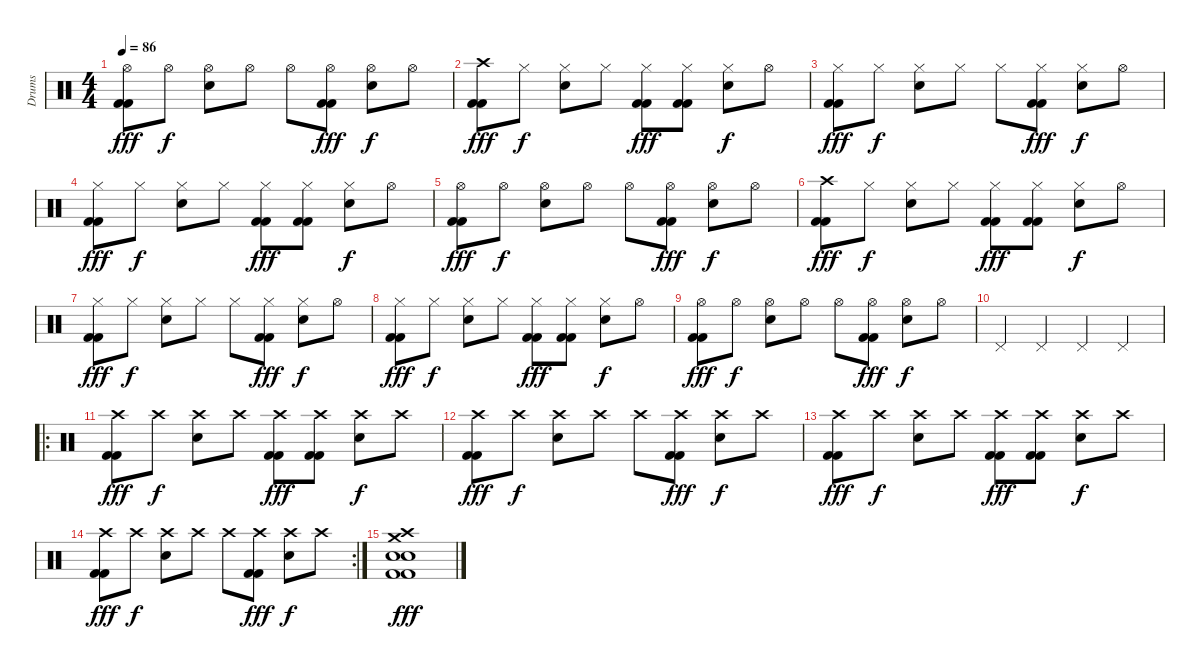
\track ("Drums" "Drums") {instrument percussion}
\staff {score}
\articulation defaults
\ts (4 4)
\tempo 86
\clef neutral
\ks c
("Hi-Hat (open)" "Kick (hit) 2" "Kick (hit) 2").8{dy fff} "Hi-Hat (open)".8{dy f} ("Hi-Hat (open)" "Electric Snare (hit)").8 "Hi-Hat (open)".8 "Hi-Hat (open)".8 ("Hi-Hat (open)" "Kick (hit) 2" "Kick (hit) 2").8{dy fff} ("Hi-Hat (open)" "Electric Snare (hit)").8{dy f} "Hi-Hat (open)".8 |
("Crash high (hit)" "Kick (hit) 2" "Kick (hit) 2").8{dy fff} "Hi-Hat (closed)".8{dy f} ("Hi-Hat (closed)" "Electric Snare (hit)").8 "Hi-Hat (closed)".8 ("Hi-Hat (closed)" "Kick (hit) 2" "Kick (hit) 2").8{dy fff} ("Hi-Hat (closed)" "Kick (hit) 2" "Kick (hit) 2").8 ("Hi-Hat (closed)" "Electric Snare (hit)").8{dy f} "Hi-Hat (open)".8 |
("Hi-Hat (closed)" "Kick (hit) 2" "Kick (hit) 2").8{dy fff} "Hi-Hat (closed)".8{dy f} ("Hi-Hat (closed)" "Electric Snare (hit)").8 "Hi-Hat (closed)".8 "Hi-Hat (closed)".8 ("Hi-Hat (closed)" "Kick (hit) 2" "Kick (hit) 2").8{dy fff} ("Hi-Hat (closed)" "Electric Snare (hit)").8{dy f} "Hi-Hat (open)".8 |
("Hi-Hat (closed)" "Kick (hit) 2" "Kick (hit) 2").8{dy fff} "Hi-Hat (closed)".8{dy f} ("Hi-Hat (closed)" "Electric Snare (hit)").8 "Hi-Hat (closed)".8 ("Hi-Hat (closed)" "Kick (hit) 2" "Kick (hit) 2").8{dy fff} ("Hi-Hat (closed)" "Kick (hit) 2" "Kick (hit) 2").8 ("Hi-Hat (closed)" "Electric Snare (hit)").8{dy f} "Hi-Hat (open)".8 |
("Hi-Hat (open)" "Kick (hit) 2" "Kick (hit) 2").8{dy fff} "Hi-Hat (open)".8{dy f} ("Hi-Hat (open)" "Electric Snare (hit)").8 "Hi-Hat (open)".8 "Hi-Hat (open)".8 ("Hi-Hat (open)" "Kick (hit) 2" "Kick (hit) 2").8{dy fff} ("Hi-Hat (open)" "Electric Snare (hit)").8{dy f} "Hi-Hat (open)".8 |
("Crash high (hit)" "Kick (hit) 2" "Kick (hit) 2").8{dy fff} "Hi-Hat (closed)".8{dy f} ("Hi-Hat (closed)" "Electric Snare (hit)").8 "Hi-Hat (closed)".8 ("Hi-Hat (closed)" "Kick (hit) 2" "Kick (hit) 2").8{dy fff} ("Hi-Hat (closed)" "Kick (hit) 2" "Kick (hit) 2").8 ("Hi-Hat (closed)" "Electric Snare (hit)").8{dy f} "Hi-Hat (open)".8 |
("Hi-Hat (closed)" "Kick (hit) 2" "Kick (hit) 2").8{dy fff} "Hi-Hat (closed)".8{dy f} ("Hi-Hat (closed)" "Electric Snare (hit)").8 "Hi-Hat (closed)".8 "Hi-Hat (closed)".8 ("Hi-Hat (closed)" "Kick (hit) 2" "Kick (hit) 2").8{dy fff} ("Hi-Hat (closed)" "Electric Snare (hit)").8{dy f} "Hi-Hat (open)".8 |
("Hi-Hat (closed)" "Kick (hit) 2" "Kick (hit) 2").8{dy fff} "Hi-Hat (closed)".8{dy f} ("Hi-Hat (closed)" "Electric Snare (hit)").8 "Hi-Hat (closed)".8 ("Hi-Hat (closed)" "Kick (hit) 2" "Kick (hit) 2").8{dy fff} ("Hi-Hat (closed)" "Kick (hit) 2" "Kick (hit) 2").8 ("Hi-Hat (closed)" "Electric Snare (hit)").8{dy f} "Hi-Hat (open)".8 |
("Hi-Hat (open)" "Kick (hit) 2" "Kick (hit) 2").8{dy fff} "Hi-Hat (open)".8{dy f} ("Hi-Hat (open)" "Electric Snare (hit)").8 "Hi-Hat (open)".8 "Hi-Hat (open)".8 ("Hi-Hat (open)" "Kick (hit) 2" "Kick (hit) 2").8{dy fff} ("Hi-Hat (open)" "Electric Snare (hit)").8{dy f} "Hi-Hat (open)".8 |
"Pedal Hi-Hat (hit)".4 "Pedal Hi-Hat (hit)".4 "Pedal Hi-Hat (hit)".4 "Pedal Hi-Hat (hit)".4 |
\ro
("Crash high (hit)" "Kick (hit) 2" "Kick (hit) 2").8{dy fff} "Crash high (hit)".8{dy f} ("Crash high (hit)" "Electric Snare (hit)").8 "Crash high (hit)".8 ("Crash high (hit)" "Kick (hit) 2" "Kick (hit) 2").8{dy fff} ("Crash high (hit)" "Kick (hit) 2" "Kick (hit) 2").8 ("Crash high (hit)" "Electric Snare (hit)").8{dy f} "Crash high (hit)".8 |
("Crash high (hit)" "Kick (hit) 2" "Kick (hit) 2").8{dy fff} "Crash high (hit)".8{dy f} ("Crash high (hit)" "Electric Snare (hit)").8 "Crash high (hit)".8 "Crash high (hit)".8 ("Crash high (hit)" "Kick (hit) 2" "Kick (hit) 2").8{dy fff} ("Crash high (hit)" "Electric Snare (hit)").8{dy f} "Crash high (hit)".8 |
("Crash high (hit)" "Kick (hit) 2" "Kick (hit) 2").8{dy fff} "Crash high (hit)".8{dy f} ("Crash high (hit)" "Electric Snare (hit)").8 "Crash high (hit)".8 ("Crash high (hit)" "Kick (hit) 2" "Kick (hit) 2").8{dy fff} ("Crash high (hit)" "Kick (hit) 2" "Kick (hit) 2").8 ("Crash high (hit)" "Electric Snare (hit)").8{dy f} "Crash high (hit)".8 |
\rc 2
("Crash high (hit)" "Kick (hit) 2" "Kick (hit) 2").8{dy fff} "Crash high (hit)".8{dy f} ("Crash high (hit)" "Electric Snare (hit)").8 "Crash high (hit)".8 "Crash high (hit)".8 ("Crash high (hit)" "Kick (hit) 2" "Kick (hit) 2").8{dy fff} ("Crash high (hit)" "Electric Snare (hit)").8{dy f} "Crash high (hit)".8 |
("Crash high (hit)" "Electric Snare (hit)" "Crash medium (hit)" "Electric Snare (hit)" "Kick (hit) 2" "Kick (hit) 2").1{dy fff}
